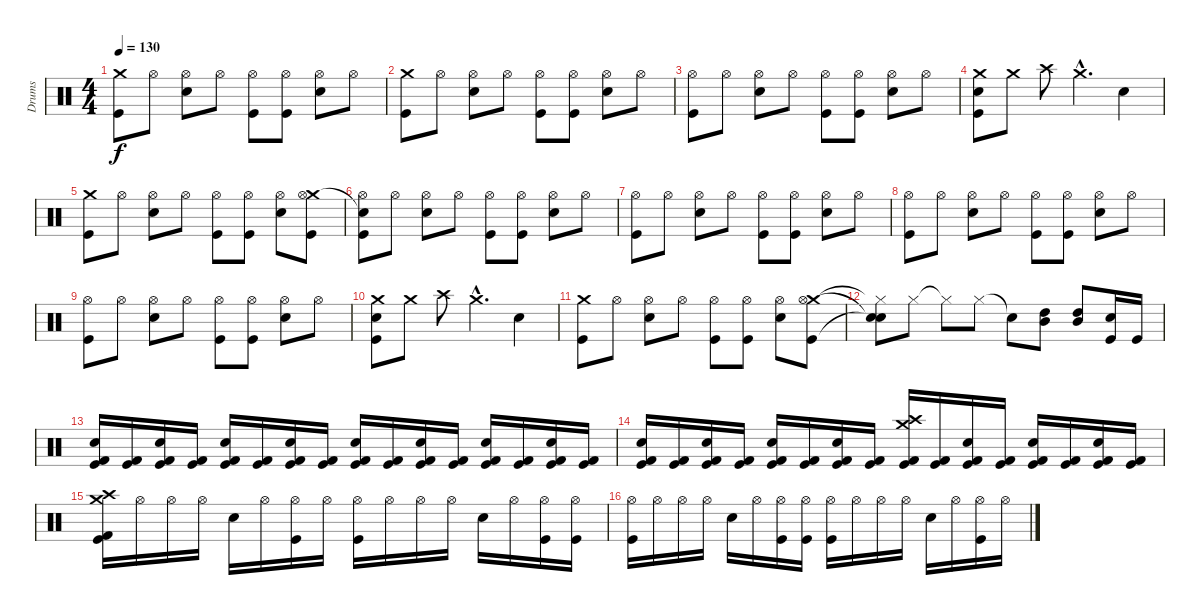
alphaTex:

\track ("Drums" "Drums") {instrument percussion}
\staff {score}
\articulation defaults
\ts (4 4)
\tempo 130
\clef neutral
\ks c
("Kick (hit)" "Crash medium (hit)").8{dy f} "Hi-Hat (open)".8 ("Electric Snare (hit)" "Hi-Hat (open)").8 "Hi-Hat (open)".8 ("Kick (hit)" "Hi-Hat (open)").8 ("Kick (hit)" "Hi-Hat (open)").8 ("Electric Snare (hit)" "Hi-Hat (open)").8 "Hi-Hat (open)".8 |
("Kick (hit)" "Crash medium (hit)").8 "Hi-Hat (open)".8 ("Electric Snare (hit)" "Hi-Hat (open)").8 "Hi-Hat (open)".8 ("Kick (hit)" "Hi-Hat (open)").8 ("Kick (hit)" "Hi-Hat (open)").8 ("Electric Snare (hit)" "Hi-Hat (open)").8 "Hi-Hat (open)".8 |
("Kick (hit)" "Hi-Hat (open)").8 "Hi-Hat (open)".8 ("Electric Snare (hit)" "Hi-Hat (open)").8 "Hi-Hat (open)".8 ("Kick (hit)" "Hi-Hat (open)").8 ("Kick (hit)" "Hi-Hat (open)").8 ("Electric Snare (hit)" "Hi-Hat (open)").8 "Hi-Hat (open)".8 |
("Crash medium (hit)" "Kick (hit)" "Electric Snare (hit)").8 "Crash medium (hit)".8 "Crash high (hit)".8 "Crash medium (hit)"{hac}.4{d} "Electric Snare (hit)".4 |
("Kick (hit)" "Crash medium (hit)").8 "Hi-Hat (open)".8 ("Electric Snare (hit)" "Hi-Hat (open)").8 "Hi-Hat (open)".8 ("Kick (hit)" "Hi-Hat (open)").8 ("Kick (hit)" "Hi-Hat (open)").8 ("Electric Snare (hit)" "Hi-Hat (open)").8 ("Kick (hit)" "Crash medium (hit)" "Hi-Hat (open)").8 |
("Kick (hit)" "Snare (hit)"{t} "Hi-Hat (open)").8 "Hi-Hat (open)".8 ("Electric Snare (hit)" "Hi-Hat (open)").8 "Hi-Hat (open)".8 ("Kick (hit)" "Hi-Hat (open)").8 ("Kick (hit)" "Hi-Hat (open)").8 ("Electric Snare (hit)" "Hi-Hat (open)").8 "Hi-Hat (open)".8 |
("Kick (hit)" "Hi-Hat (open)").8 "Hi-Hat (open)".8 ("Electric Snare (hit)" "Hi-Hat (open)").8 "Hi-Hat (open)".8 ("Kick (hit)" "Hi-Hat (open)").8 ("Kick (hit)" "Hi-Hat (open)").8 ("Electric Snare (hit)" "Hi-Hat (open)").8 "Hi-Hat (open)".8 |
("Kick (hit)" "Hi-Hat (open)").8 "Hi-Hat (open)".8 ("Electric Snare (hit)" "Hi-Hat (open)").8 "Hi-Hat (open)".8 ("Kick (hit)" "Hi-Hat (open)").8 ("Kick (hit)" "Hi-Hat (open)").8 ("Electric Snare (hit)" "Hi-Hat (open)").8 "Hi-Hat (open)".8 |
("Kick (hit)" "Hi-Hat (open)").8 "Hi-Hat (open)".8 ("Electric Snare (hit)" "Hi-Hat (open)").8 "Hi-Hat (open)".8 ("Kick (hit)" "Hi-Hat (open)").8 ("Kick (hit)" "Hi-Hat (open)").8 ("Electric Snare (hit)" "Hi-Hat (open)").8 "Hi-Hat (open)".8 |
("Crash medium (hit)" "Kick (hit)" "Electric Snare (hit)").8 "Crash medium (hit)".8 "Crash high (hit)".8 "Crash medium (hit)"{hac}.4{d} "Electric Snare (hit)".4 |
("Kick (hit)" "Crash medium (hit)").8 "Hi-Hat (open)".8 ("Electric Snare (hit)" "Hi-Hat (open)").8 "Hi-Hat (open)".8 ("Kick (hit)" "Hi-Hat (open)").8 ("Kick (hit)" "Hi-Hat (open)").8 ("Electric Snare (hit)" "Hi-Hat (open)").8 ("Kick (hit)" "Crash medium (hit)" "Hi-Hat (open)").8 |
("Snare (hit)"{t} "Snare (hit)"{t} "Hi-Hat (closed)"{t}).8 "Hi-Hat (closed)".8 "Hi-Hat (closed)"{t}.8 "Hi-Hat (closed)".8 "Electric Snare (hit)"{t}.8 ("Mid Tom (hit)" "High Tom (hit)").8 ("Mid Tom (hit)" "High Tom (hit)").8 ("Electric Snare (hit)" "Kick (hit)").16 "Kick (hit)".16 |
("Electric Snare (hit)" "Kick (hit)" "Kick (hit) 2").16 ("Kick (hit)" "Kick (hit) 2").16 ("Electric Snare (hit)" "Kick (hit)" "Kick (hit) 2").16 ("Kick (hit)" "Kick (hit) 2").16 ("Electric Snare (hit)" "Kick (hit)" "Kick (hit) 2").16 ("Kick (hit)" "Kick (hit) 2").16 ("Electric Snare (hit)" "Kick (hit)" "Kick (hit) 2").16 ("Kick (hit)" "Kick (hit) 2").16 ("Electric Snare (hit)" "Kick (hit)" "Kick (hit) 2").16 ("Kick (hit)" "Kick (hit) 2").16 ("Electric Snare (hit)" "Kick (hit)" "Kick (hit) 2").16 ("Kick (hit)" "Kick (hit) 2").16 ("Electric Snare (hit)" "Kick (hit)" "Kick (hit) 2").16 ("Kick (hit)" "Kick (hit) 2").16 ("Electric Snare (hit)" "Kick (hit)" "Kick (hit) 2").16 ("Kick (hit)" "Kick (hit) 2").16 |
("Electric Snare (hit)" "Kick (hit)" "Kick (hit) 2").16 ("Kick (hit)" "Kick (hit) 2").16 ("Electric Snare (hit)" "Kick (hit)" "Kick (hit) 2").16 ("Kick (hit)" "Kick (hit) 2").16 ("Electric Snare (hit)" "Kick (hit)" "Kick (hit) 2").16 ("Kick (hit)" "Kick (hit) 2").16 ("Electric Snare (hit)" "Kick (hit)" "Kick (hit) 2").16 ("Kick (hit)" "Kick (hit) 2").16 ("Crash medium (hit)" "Crash high (hit)" "Kick (hit)" "Kick (hit) 2").16 ("Kick (hit)" "Kick (hit) 2").16 ("Electric Snare (hit)" "Kick (hit)" "Kick (hit) 2").16 ("Kick (hit)" "Kick (hit) 2").16 ("Electric Snare (hit)" "Kick (hit)" "Kick (hit) 2").16 ("Kick (hit)" "Kick (hit) 2").16 ("Electric Snare (hit)" "Kick (hit)" "Kick (hit) 2").16 ("Kick (hit)" "Kick (hit) 2").16 |
("Crash medium (hit)" "Crash high (hit)" "Kick (hit) 2" "Kick (hit)").16 "Hi-Hat (open)".16 "Hi-Hat (open)".16 "Hi-Hat (open)".16 "Electric Snare (hit)".16 "Hi-Hat (open)".16 ("Hi-Hat (open)" "Kick (hit)").16 "Hi-Hat (open)".16 ("Hi-Hat (open)" "Kick (hit)").16 "Hi-Hat (open)".16 "Hi-Hat (open)".16 "Hi-Hat (open)".16 "Electric Snare (hit)".16 "Hi-Hat (open)".16 ("Hi-Hat (open)" "Kick (hit)").16 ("Hi-Hat (open)" "Kick (hit)").16 |
("Hi-Hat (open)" "Kick (hit)").16 "Hi-Hat (open)".16 "Hi-Hat (open)".16 "Hi-Hat (open)".16 "Electric Snare (hit)".16 "Hi-Hat (open)".16 ("Hi-Hat (open)" "Kick (hit)").16 ("Hi-Hat (open)" "Kick (hit)").16 ("Hi-Hat (open)" "Kick (hit)").16 "Hi-Hat (open)".16 "Hi-Hat (open)".16 "Hi-Hat (open)".16 "Electric Snare (hit)".16 "Hi-Hat (open)".16 ("Hi-Hat (open)" "Kick (hit)").16 "Hi-Hat (open)".16
